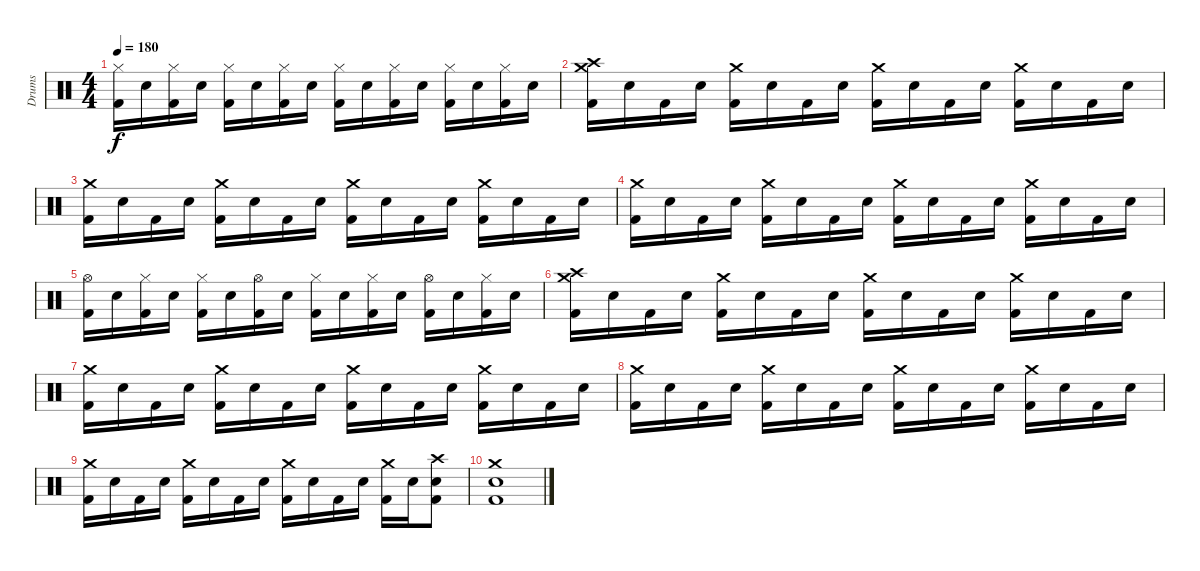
\track ("Drums" "Drums") {instrument percussion}
\staff {score}
\articulation defaults
\ts (4 4)
\tempo 180
\clef neutral
\ks c
("Kick (hit) 2" "Hi-Hat (closed)").16{dy f} "Snare (hit) 2".16 ("Kick (hit) 2" "Hi-Hat (closed)").16 "Snare (hit) 2".16 ("Kick (hit) 2" "Hi-Hat (closed)").16 "Snare (hit) 2".16 ("Kick (hit) 2" "Hi-Hat (closed)").16 "Snare (hit) 2".16 ("Kick (hit) 2" "Hi-Hat (closed)").16 "Snare (hit) 2".16 ("Kick (hit) 2" "Hi-Hat (closed)").16 "Snare (hit) 2".16 ("Kick (hit) 2" "Hi-Hat (closed)").16 "Snare (hit) 2".16 ("Kick (hit) 2" "Hi-Hat (closed)").16 "Snare (hit) 2".16 |
("Kick (hit) 2" "Crash medium (hit)" "Crash high (hit)").16 "Snare (hit) 2".16 "Kick (hit) 2".16 "Snare (hit) 2".16 ("Kick (hit) 2" "Crash medium (hit)").16 "Snare (hit) 2".16 "Kick (hit) 2".16 "Snare (hit) 2".16 ("Kick (hit) 2" "Crash medium (hit)").16 "Snare (hit) 2".16 "Kick (hit) 2".16 "Snare (hit) 2".16 ("Kick (hit) 2" "Crash medium (hit)").16 "Snare (hit) 2".16 "Kick (hit) 2".16 "Snare (hit) 2".16 |
("Kick (hit) 2" "Crash medium (hit)").16 "Snare (hit) 2".16 "Kick (hit) 2".16 "Snare (hit) 2".16 ("Kick (hit) 2" "Crash medium (hit)").16 "Snare (hit) 2".16 "Kick (hit) 2".16 "Snare (hit) 2".16 ("Kick (hit) 2" "Crash medium (hit)").16 "Snare (hit) 2".16 "Kick (hit) 2".16 "Snare (hit) 2".16 ("Kick (hit) 2" "Crash medium (hit)").16 "Snare (hit) 2".16 "Kick (hit) 2".16 "Snare (hit) 2".16 |
("Kick (hit) 2" "Crash medium (hit)").16 "Snare (hit) 2".16 "Kick (hit) 2".16 "Snare (hit) 2".16 ("Kick (hit) 2" "Crash medium (hit)").16 "Snare (hit) 2".16 "Kick (hit) 2".16 "Snare (hit) 2".16 ("Kick (hit) 2" "Crash medium (hit)").16 "Snare (hit) 2".16 "Kick (hit) 2".16 "Snare (hit) 2".16 ("Kick (hit) 2" "Crash medium (hit)").16 "Snare (hit) 2".16 "Kick (hit) 2".16 "Snare (hit) 2".16 |
("Kick (hit) 2" "Hi-Hat (open)").16 "Snare (hit) 2".16 ("Kick (hit) 2" "Hi-Hat (closed)").16 "Snare (hit) 2".16 ("Kick (hit) 2" "Hi-Hat (closed)").16 "Snare (hit) 2".16 ("Kick (hit) 2" "Hi-Hat (open)").16 "Snare (hit) 2".16 ("Kick (hit) 2" "Hi-Hat (closed)").16 "Snare (hit) 2".16 ("Kick (hit) 2" "Hi-Hat (closed)").16 "Snare (hit) 2".16 ("Kick (hit) 2" "Hi-Hat (open)").16 "Snare (hit) 2".16 ("Kick (hit) 2" "Hi-Hat (closed)").16 "Snare (hit) 2".16 |
("Kick (hit) 2" "Crash medium (hit)" "Crash high (hit)").16 "Snare (hit) 2".16 "Kick (hit) 2".16 "Snare (hit) 2".16 ("Kick (hit) 2" "Crash medium (hit)").16 "Snare (hit) 2".16 "Kick (hit) 2".16 "Snare (hit) 2".16 ("Kick (hit) 2" "Crash medium (hit)").16 "Snare (hit) 2".16 "Kick (hit) 2".16 "Snare (hit) 2".16 ("Kick (hit) 2" "Crash medium (hit)").16 "Snare (hit) 2".16 "Kick (hit) 2".16 "Snare (hit) 2".16 |
("Kick (hit) 2" "Crash medium (hit)").16 "Snare (hit) 2".16 "Kick (hit) 2".16 "Snare (hit) 2".16 ("Kick (hit) 2" "Crash medium (hit)").16 "Snare (hit) 2".16 "Kick (hit) 2".16 "Snare (hit) 2".16 ("Kick (hit) 2" "Crash medium (hit)").16 "Snare (hit) 2".16 "Kick (hit) 2".16 "Snare (hit) 2".16 ("Kick (hit) 2" "Crash medium (hit)").16 "Snare (hit) 2".16 "Kick (hit) 2".16 "Snare (hit) 2".16 |
("Kick (hit) 2" "Crash medium (hit)").16 "Snare (hit) 2".16 "Kick (hit) 2".16 "Snare (hit) 2".16 ("Kick (hit) 2" "Crash medium (hit)").16 "Snare (hit) 2".16 "Kick (hit) 2".16 "Snare (hit) 2".16 ("Kick (hit) 2" "Crash medium (hit)").16 "Snare (hit) 2".16 "Kick (hit) 2".16 "Snare (hit) 2".16 ("Kick (hit) 2" "Crash medium (hit)").16 "Snare (hit) 2".16 "Kick (hit) 2".16 "Snare (hit) 2".16 |
("Kick (hit) 2" "Crash medium (hit)").16 "Snare (hit) 2".16 "Kick (hit) 2".16 "Snare (hit) 2".16 ("Kick (hit) 2" "Crash medium (hit)").16 "Snare (hit) 2".16 "Kick (hit) 2".16 "Snare (hit) 2".16 ("Kick (hit) 2" "Crash medium (hit)").16 "Snare (hit) 2".16 "Kick (hit) 2".16 "Snare (hit) 2".16 ("Kick (hit) 2" "Crash medium (hit)").16 "Snare (hit) 2".16 ("Kick (hit) 2" "Snare (hit) 2" "Crash high (hit)").8 |
("Kick (hit) 2" "Snare (hit) 2" "Crash medium (hit)").1
